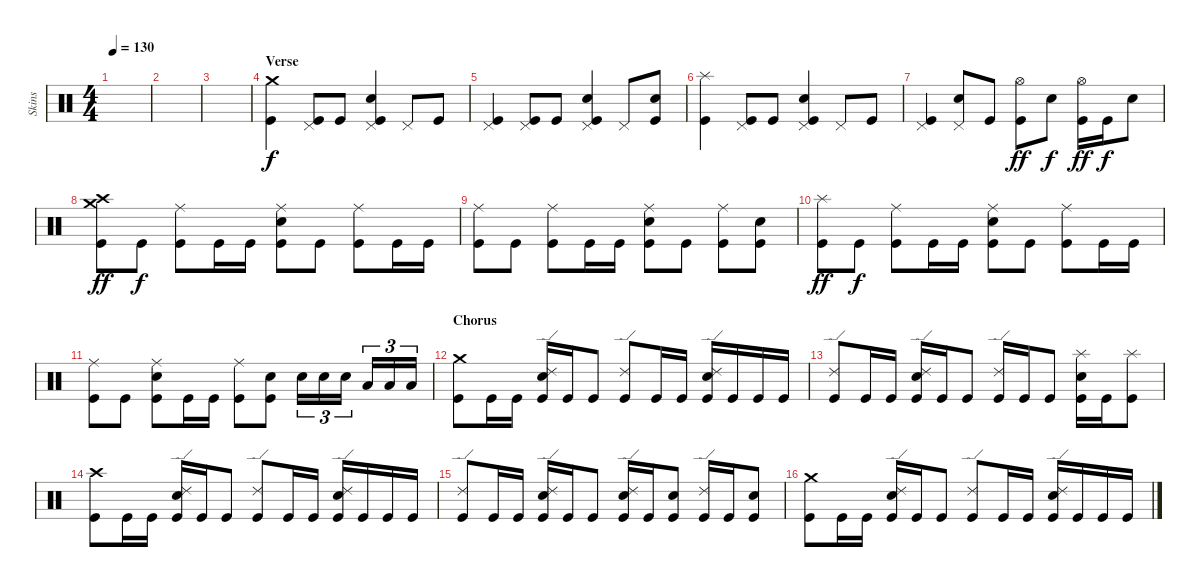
\track ("Skins" "Skins") {instrument percussion}
\staff {score}
\articulation defaults
\ts (4 4)
\tempo 130
\clef neutral
\ks c
|
|
|
\section ("" "Verse")
("Crash medium (hit)" "Kick (hit)").4{dy f} ("Pedal Hi-Hat (hit)" "Kick (hit)").8 "Kick (hit)".8 ("Pedal Hi-Hat (hit)" "Electric Snare (hit)" "Kick (hit)").4 "Pedal Hi-Hat (hit)".8 "Kick (hit)".8 |
("Pedal Hi-Hat (hit)" "Kick (hit)").4 ("Pedal Hi-Hat (hit)" "Kick (hit)").8 "Kick (hit)".8 ("Pedal Hi-Hat (hit)" "Electric Snare (hit)" "Kick (hit)").4 "Pedal Hi-Hat (hit)".8 ("Electric Snare (hit)" "Kick (hit)").8 |
("Splash (hit)" "Kick (hit)").4 ("Pedal Hi-Hat (hit)" "Kick (hit)").8 "Kick (hit)".8 ("Pedal Hi-Hat (hit)" "Electric Snare (hit)" "Kick (hit)").4 "Pedal Hi-Hat (hit)".8 "Kick (hit)".8 |
("Pedal Hi-Hat (hit)" "Kick (hit)").4 ("Pedal Hi-Hat (hit)" "Electric Snare (hit)").8 "Kick (hit)".8 ("Hi-Hat (open)" "Kick (hit)").8{dy ff} "Electric Snare (hit)".8{dy f} ("Hi-Hat (open)" "Kick (hit)").16{dy ff} "Kick (hit)".16{dy f} "Electric Snare (hit)".8 |
("Crash high (hit)" "Crash medium (hit)" "Kick (hit)").8{dy ff} "Kick (hit)".8{dy f} ("Ride (middle)" "Kick (hit)").8 "Kick (hit)".16 "Kick (hit)".16 ("Ride (middle)" "Electric Snare (hit)" "Kick (hit)").8 "Kick (hit)".8 ("Ride (middle)" "Kick (hit)").8 "Kick (hit)".16 "Kick (hit)".16 |
("Ride (middle)" "Kick (hit)").8 "Kick (hit)".8 ("Ride (middle)" "Kick (hit)").8 "Kick (hit)".16 "Kick (hit)".16 ("Ride (middle)" "Electric Snare (hit)" "Kick (hit)").8 "Kick (hit)".8 ("Ride (middle)" "Kick (hit)").8 ("Electric Snare (hit)" "Kick (hit)").8 |
("Splash (hit)" "Kick (hit)").8{dy ff} "Kick (hit)".8{dy f} ("Ride (middle)" "Kick (hit)").8 "Kick (hit)".16 "Kick (hit)".16 ("Ride (middle)" "Electric Snare (hit)" "Kick (hit)").8 "Kick (hit)".8 ("Ride (middle)" "Kick (hit)").8 "Kick (hit)".16 "Kick (hit)".16 |
("Ride (middle)" "Kick (hit)").8 "Kick (hit)".8 ("Ride (middle)" "Electric Snare (hit)" "Kick (hit)").8 "Kick (hit)".16 "Kick (hit)".16 ("Ride (middle)" "Kick (hit)").8 ("Electric Snare (hit)" "Kick (hit)").8 "Electric Snare (hit)".16{tu (3 2)} "Electric Snare (hit)".16{tu (3 2)} "Electric Snare (hit)".16{tu (3 2)} "Low Tom (hit)".16{tu (3 2)} "Low Tom (hit)".16{tu (3 2)} "Low Tom (hit)".16{tu (3 2)} |
\section ("" "Chorus ")
("Crash medium (hit)" "Kick (hit)").8 "Kick (hit)".16 "Kick (hit)".16 ("Ride (edge) 2" "Electric Snare (hit)" "Kick (hit)").16 "Kick (hit)".16 "Kick (hit)".8 ("Ride (edge) 2" "Kick (hit)").8 "Kick (hit)".16 "Kick (hit)".16 ("Ride (edge) 2" "Electric Snare (hit)" "Kick (hit)").16 "Kick (hit)".16 "Kick (hit)".16 "Kick (hit)".16 |
("Ride (edge) 2" "Kick (hit)").8 "Kick (hit)".16 "Kick (hit)".16 ("Ride (edge) 2" "Electric Snare (hit)" "Kick (hit)").16 "Kick (hit)".16 "Kick (hit)".8 ("Ride (edge) 2" "Kick (hit)").16 "Kick (hit)".16 "Kick (hit)".8 ("Splash (hit)" "Electric Snare (hit)" "Kick (hit)").16 "Kick (hit)".16 ("Splash (hit)" "Kick (hit)").8 |
("Crash high (hit)" "Kick (hit)").8 "Kick (hit)".16 "Kick (hit)".16 ("Ride (edge) 2" "Electric Snare (hit)" "Kick (hit)").16 "Kick (hit)".16 "Kick (hit)".8 ("Ride (edge) 2" "Kick (hit)").8 "Kick (hit)".16 "Kick (hit)".16 ("Ride (edge) 2" "Electric Snare (hit)" "Kick (hit)").16 "Kick (hit)".16 "Kick (hit)".16 "Kick (hit)".16 |
("Ride (edge) 2" "Kick (hit)").8 "Kick (hit)".16 "Kick (hit)".16 ("Ride (edge) 2" "Electric Snare (hit)" "Kick (hit)").16 "Kick (hit)".16 "Kick (hit)".8 ("Ride (edge) 2" "Electric Snare (hit)" "Kick (hit)").16 "Kick (hit)".16 ("Electric Snare (hit)" "Kick (hit)").8 ("Ride (edge) 2" "Kick (hit)").16 "Kick (hit)".16 ("Electric Snare (hit)" "Kick (hit)").8 |
("Crash medium (hit)" "Kick (hit)").8 "Kick (hit)".16 "Kick (hit)".16 ("Ride (edge) 2" "Electric Snare (hit)" "Kick (hit)").16 "Kick (hit)".16 "Kick (hit)".8 ("Ride (edge) 2" "Kick (hit)").8 "Kick (hit)".16 "Kick (hit)".16 ("Ride (edge) 2" "Electric Snare (hit)" "Kick (hit)").16 "Kick (hit)".16 "Kick (hit)".16 "Kick (hit)".16
